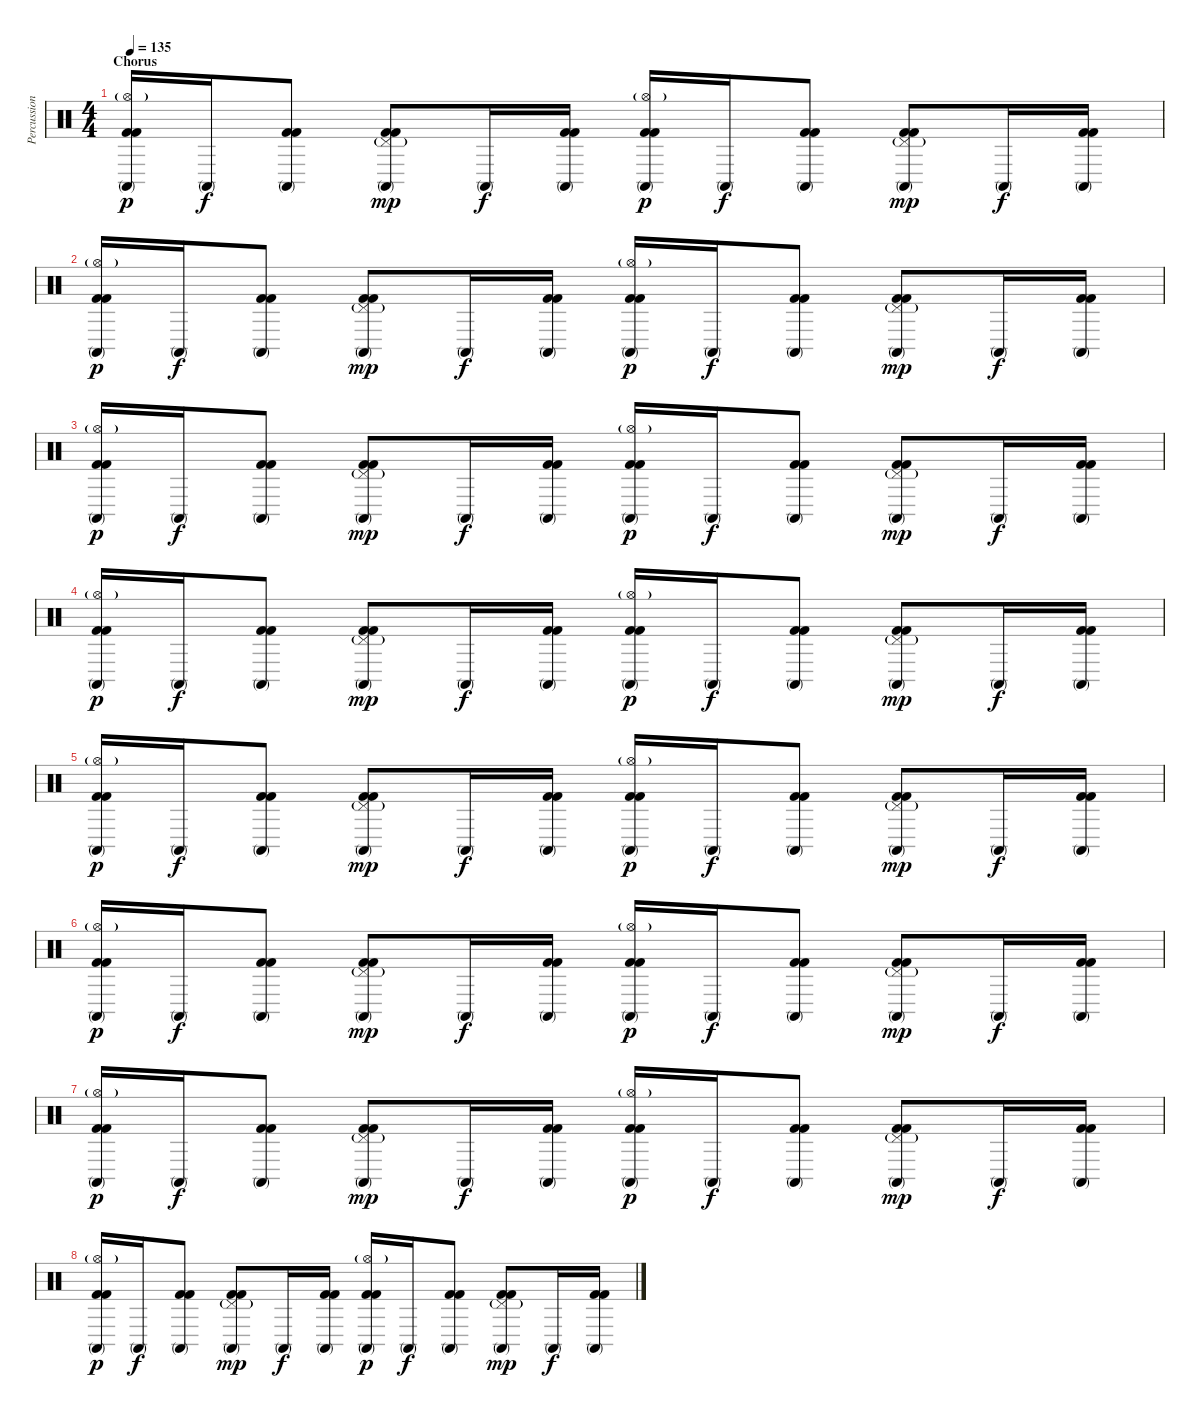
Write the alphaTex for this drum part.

\track ("Percussion" "Percussion") {instrument percussion}
\staff {score}
\articulation defaults
\ts (4 4)
\section ("" "Chorus")
\tempo 135
\clef neutral
\ks c
("Conga high (mute)" "Hi-Hat (open)"{g} "Kick (hit) 2" "Kick (hit) 2").16{dy p} "Conga high (mute)".16{dy f} ("Conga high (mute)" "Kick (hit) 2" "Kick (hit) 2").8 ("Conga high (mute)" "Pedal Hi-Hat (hit)"{g} "Kick (hit) 2" "Kick (hit) 2").8{dy mp} "Conga high (mute)".16{dy f} ("Conga high (mute)" "Kick (hit) 2" "Kick (hit) 2").16 ("Conga high (mute)" "Hi-Hat (open)"{g} "Kick (hit) 2" "Kick (hit) 2").16{dy p} "Conga high (mute)".16{dy f} ("Conga high (mute)" "Kick (hit) 2" "Kick (hit) 2").8 ("Conga high (mute)" "Pedal Hi-Hat (hit)"{g} "Kick (hit) 2" "Kick (hit) 2").8{dy mp} "Conga high (mute)".16{dy f} ("Conga high (mute)" "Kick (hit) 2" "Kick (hit) 2").16 |
("Conga high (mute)" "Hi-Hat (open)"{g} "Kick (hit) 2" "Kick (hit) 2").16{dy p} "Conga high (mute)".16{dy f} ("Conga high (mute)" "Kick (hit) 2" "Kick (hit) 2").8 ("Conga high (mute)" "Pedal Hi-Hat (hit)"{g} "Kick (hit) 2" "Kick (hit) 2").8{dy mp} "Conga high (mute)".16{dy f} ("Conga high (mute)" "Kick (hit) 2" "Kick (hit) 2").16 ("Conga high (mute)" "Hi-Hat (open)"{g} "Kick (hit) 2" "Kick (hit) 2").16{dy p} "Conga high (mute)".16{dy f} ("Conga high (mute)" "Kick (hit) 2" "Kick (hit) 2").8 ("Conga high (mute)" "Pedal Hi-Hat (hit)"{g} "Kick (hit) 2" "Kick (hit) 2").8{dy mp} "Conga high (mute)".16{dy f} ("Conga high (mute)" "Kick (hit) 2" "Kick (hit) 2").16 |
("Conga high (mute)" "Hi-Hat (open)"{g} "Kick (hit) 2" "Kick (hit) 2").16{dy p} "Conga high (mute)".16{dy f} ("Conga high (mute)" "Kick (hit) 2" "Kick (hit) 2").8 ("Conga high (mute)" "Pedal Hi-Hat (hit)"{g} "Kick (hit) 2" "Kick (hit) 2").8{dy mp} "Conga high (mute)".16{dy f} ("Conga high (mute)" "Kick (hit) 2" "Kick (hit) 2").16 ("Conga high (mute)" "Hi-Hat (open)"{g} "Kick (hit) 2" "Kick (hit) 2").16{dy p} "Conga high (mute)".16{dy f} ("Conga high (mute)" "Kick (hit) 2" "Kick (hit) 2").8 ("Conga high (mute)" "Pedal Hi-Hat (hit)"{g} "Kick (hit) 2" "Kick (hit) 2").8{dy mp} "Conga high (mute)".16{dy f} ("Conga high (mute)" "Kick (hit) 2" "Kick (hit) 2").16 |
("Conga high (mute)" "Hi-Hat (open)"{g} "Kick (hit) 2" "Kick (hit) 2").16{dy p} "Conga high (mute)".16{dy f} ("Conga high (mute)" "Kick (hit) 2" "Kick (hit) 2").8 ("Conga high (mute)" "Pedal Hi-Hat (hit)"{g} "Kick (hit) 2" "Kick (hit) 2").8{dy mp} "Conga high (mute)".16{dy f} ("Conga high (mute)" "Kick (hit) 2" "Kick (hit) 2").16 ("Conga high (mute)" "Hi-Hat (open)"{g} "Kick (hit) 2" "Kick (hit) 2").16{dy p} "Conga high (mute)".16{dy f} ("Conga high (mute)" "Kick (hit) 2" "Kick (hit) 2").8 ("Conga high (mute)" "Pedal Hi-Hat (hit)"{g} "Kick (hit) 2" "Kick (hit) 2").8{dy mp} "Conga high (mute)".16{dy f} ("Conga high (mute)" "Kick (hit) 2" "Kick (hit) 2").16 |
("Conga high (mute)" "Hi-Hat (open)"{g} "Kick (hit) 2" "Kick (hit) 2").16{dy p} "Conga high (mute)".16{dy f} ("Conga high (mute)" "Kick (hit) 2" "Kick (hit) 2").8 ("Conga high (mute)" "Pedal Hi-Hat (hit)"{g} "Kick (hit) 2" "Kick (hit) 2").8{dy mp} "Conga high (mute)".16{dy f} ("Conga high (mute)" "Kick (hit) 2" "Kick (hit) 2").16 ("Conga high (mute)" "Hi-Hat (open)"{g} "Kick (hit) 2" "Kick (hit) 2").16{dy p} "Conga high (mute)".16{dy f} ("Conga high (mute)" "Kick (hit) 2" "Kick (hit) 2").8 ("Conga high (mute)" "Pedal Hi-Hat (hit)"{g} "Kick (hit) 2" "Kick (hit) 2").8{dy mp} "Conga high (mute)".16{dy f} ("Conga high (mute)" "Kick (hit) 2" "Kick (hit) 2").16 |
("Conga high (mute)" "Hi-Hat (open)"{g} "Kick (hit) 2" "Kick (hit) 2").16{dy p} "Conga high (mute)".16{dy f} ("Conga high (mute)" "Kick (hit) 2" "Kick (hit) 2").8 ("Conga high (mute)" "Pedal Hi-Hat (hit)"{g} "Kick (hit) 2" "Kick (hit) 2").8{dy mp} "Conga high (mute)".16{dy f} ("Conga high (mute)" "Kick (hit) 2" "Kick (hit) 2").16 ("Conga high (mute)" "Hi-Hat (open)"{g} "Kick (hit) 2" "Kick (hit) 2").16{dy p} "Conga high (mute)".16{dy f} ("Conga high (mute)" "Kick (hit) 2" "Kick (hit) 2").8 ("Conga high (mute)" "Pedal Hi-Hat (hit)"{g} "Kick (hit) 2" "Kick (hit) 2").8{dy mp} "Conga high (mute)".16{dy f} ("Conga high (mute)" "Kick (hit) 2" "Kick (hit) 2").16 |
("Conga high (mute)" "Hi-Hat (open)"{g} "Kick (hit) 2" "Kick (hit) 2").16{dy p} "Conga high (mute)".16{dy f} ("Conga high (mute)" "Kick (hit) 2" "Kick (hit) 2").8 ("Conga high (mute)" "Pedal Hi-Hat (hit)"{g} "Kick (hit) 2" "Kick (hit) 2").8{dy mp} "Conga high (mute)".16{dy f} ("Conga high (mute)" "Kick (hit) 2" "Kick (hit) 2").16 ("Conga high (mute)" "Hi-Hat (open)"{g} "Kick (hit) 2" "Kick (hit) 2").16{dy p} "Conga high (mute)".16{dy f} ("Conga high (mute)" "Kick (hit) 2" "Kick (hit) 2").8 ("Conga high (mute)" "Pedal Hi-Hat (hit)"{g} "Kick (hit) 2" "Kick (hit) 2").8{dy mp} "Conga high (mute)".16{dy f} ("Conga high (mute)" "Kick (hit) 2" "Kick (hit) 2").16 |
("Conga high (mute)" "Hi-Hat (open)"{g} "Kick (hit) 2" "Kick (hit) 2").16{dy p} "Conga high (mute)".16{dy f} ("Conga high (mute)" "Kick (hit) 2" "Kick (hit) 2").8 ("Conga high (mute)" "Pedal Hi-Hat (hit)"{g} "Kick (hit) 2" "Kick (hit) 2").8{dy mp} "Conga high (mute)".16{dy f} ("Conga high (mute)" "Kick (hit) 2" "Kick (hit) 2").16 ("Conga high (mute)" "Hi-Hat (open)"{g} "Kick (hit) 2" "Kick (hit) 2").16{dy p} "Conga high (mute)".16{dy f} ("Conga high (mute)" "Kick (hit) 2" "Kick (hit) 2").8 ("Conga high (mute)" "Pedal Hi-Hat (hit)"{g} "Kick (hit) 2" "Kick (hit) 2").8{dy mp} "Conga high (mute)".16{dy f} ("Conga high (mute)" "Kick (hit) 2" "Kick (hit) 2").16
